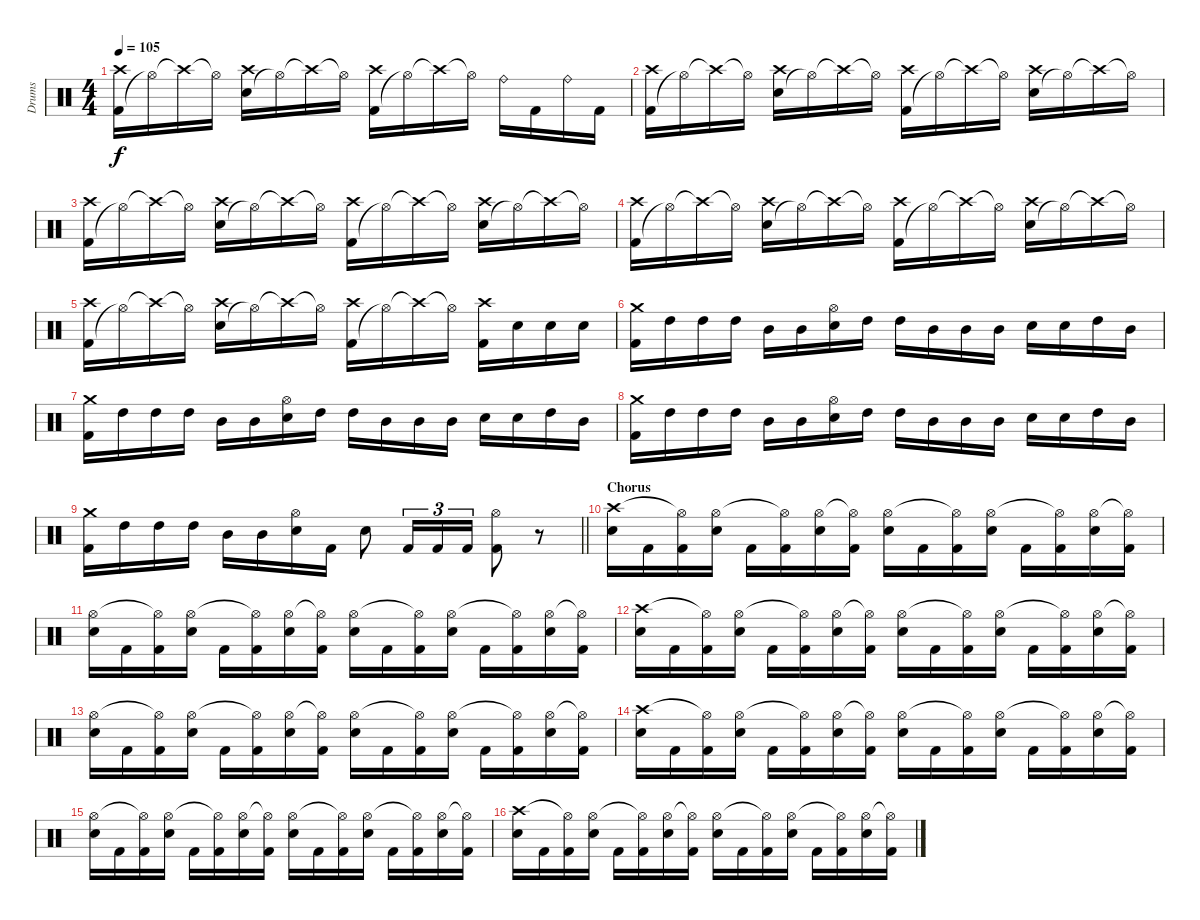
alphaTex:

\track ("Drums" "Drums") {instrument percussion}
\staff {score}
\articulation defaults
\ts (4 4)
\tempo 105
\clef neutral
\ks c
("Kick (hit) 2" "Crash high (hit)").16{dy f} "Hi-Hat (open)"{t}.16 "Crash high (hit)"{t}.16 "Hi-Hat (open)"{t}.16 ("Snare (hit) 2" "Crash high (hit)").16 "Hi-Hat (open)"{t}.16 "Crash high (hit)"{t}.16 "Hi-Hat (open)"{t}.16 ("Kick (hit) 2" "Crash high (hit)").16 "Hi-Hat (open)"{t}.16 "Crash high (hit)"{t}.16 "Hi-Hat (open)"{t}.16 "Ride (bell)".16 "Kick (hit) 2".16 "Ride (bell)".16 "Kick (hit) 2".16 |
("Kick (hit) 2" "Crash high (hit)").16 "Hi-Hat (open)"{t}.16 "Crash high (hit)"{t}.16 "Hi-Hat (open)"{t}.16 ("Snare (hit) 2" "Crash high (hit)").16 "Hi-Hat (open)"{t}.16 "Crash high (hit)"{t}.16 "Hi-Hat (open)"{t}.16 ("Kick (hit) 2" "Crash high (hit)").16 "Hi-Hat (open)"{t}.16 "Crash high (hit)"{t}.16 "Hi-Hat (open)"{t}.16 ("Snare (hit) 2" "Crash high (hit)").16 "Hi-Hat (open)"{t}.16 "Crash high (hit)"{t}.16 "Hi-Hat (open)"{t}.16 |
("Kick (hit) 2" "Crash high (hit)").16 "Hi-Hat (open)"{t}.16 "Crash high (hit)"{t}.16 "Hi-Hat (open)"{t}.16 ("Snare (hit) 2" "Crash high (hit)").16 "Hi-Hat (open)"{t}.16 "Crash high (hit)"{t}.16 "Hi-Hat (open)"{t}.16 ("Kick (hit) 2" "Crash high (hit)").16 "Hi-Hat (open)"{t}.16 "Crash high (hit)"{t}.16 "Hi-Hat (open)"{t}.16 ("Snare (hit) 2" "Crash high (hit)").16 "Hi-Hat (open)"{t}.16 "Crash high (hit)"{t}.16 "Hi-Hat (open)"{t}.16 |
("Kick (hit) 2" "Crash high (hit)").16 "Hi-Hat (open)"{t}.16 "Crash high (hit)"{t}.16 "Hi-Hat (open)"{t}.16 ("Snare (hit) 2" "Crash high (hit)").16 "Hi-Hat (open)"{t}.16 "Crash high (hit)"{t}.16 "Hi-Hat (open)"{t}.16 ("Kick (hit) 2" "Crash high (hit)").16 "Hi-Hat (open)"{t}.16 "Crash high (hit)"{t}.16 "Hi-Hat (open)"{t}.16 ("Snare (hit) 2" "Crash high (hit)").16 "Hi-Hat (open)"{t}.16 "Crash high (hit)"{t}.16 "Hi-Hat (open)"{t}.16 |
("Kick (hit) 2" "Crash high (hit)").16 "Hi-Hat (open)"{t}.16 "Crash high (hit)"{t}.16 "Hi-Hat (open)"{t}.16 ("Snare (hit) 2" "Crash high (hit)").16 "Hi-Hat (open)"{t}.16 "Crash high (hit)"{t}.16 "Hi-Hat (open)"{t}.16 ("Kick (hit) 2" "Crash high (hit)").16 "Hi-Hat (open)"{t}.16 "Crash high (hit)"{t}.16 "Hi-Hat (open)"{t}.16 ("Kick (hit) 2" "Crash high (hit)").16 "Snare (hit) 2".16 "Snare (hit) 2".16 "Snare (hit) 2".16 |
("Kick (hit) 2" "Crash medium (hit)").16 "High Tom (hit)".16 "High Tom (hit)".16 "High Tom (hit)".16 "Mid Tom (hit)".16 "Mid Tom (hit)".16 ("Snare (hit) 2" "Hi-Hat (open)").16 "High Tom (hit)".16 "High Tom (hit)".16 "Mid Tom (hit)".16 "Mid Tom (hit)".16 "Mid Tom (hit)".16 "Snare (hit) 2".16 "Snare (hit) 2".16 "High Tom (hit)".16 "Mid Tom (hit)".16 |
("Kick (hit) 2" "Crash medium (hit)").16 "High Tom (hit)".16 "High Tom (hit)".16 "High Tom (hit)".16 "Mid Tom (hit)".16 "Mid Tom (hit)".16 ("Snare (hit) 2" "Hi-Hat (open)").16 "High Tom (hit)".16 "High Tom (hit)".16 "Mid Tom (hit)".16 "Mid Tom (hit)".16 "Mid Tom (hit)".16 "Snare (hit) 2".16 "Snare (hit) 2".16 "High Tom (hit)".16 "Mid Tom (hit)".16 |
("Kick (hit) 2" "Crash medium (hit)").16 "High Tom (hit)".16 "High Tom (hit)".16 "High Tom (hit)".16 "Mid Tom (hit)".16 "Mid Tom (hit)".16 ("Snare (hit) 2" "Hi-Hat (open)").16 "High Tom (hit)".16 "High Tom (hit)".16 "Mid Tom (hit)".16 "Mid Tom (hit)".16 "Mid Tom (hit)".16 "Snare (hit) 2".16 "Snare (hit) 2".16 "High Tom (hit)".16 "Mid Tom (hit)".16 |
\barLineRight lightlight
("Kick (hit) 2" "Crash medium (hit)").16 "High Tom (hit)".16 "High Tom (hit)".16 "High Tom (hit)".16 "Mid Tom (hit)".16 "Mid Tom (hit)".16 ("Snare (hit) 2" "Hi-Hat (open)").16 "Kick (hit) 2".16 "Snare (hit) 2".8 "Kick (hit) 2".16{tu (3 2)} "Kick (hit) 2".16{tu (3 2)} "Kick (hit) 2".16{tu (3 2)} ("Hi-Hat (open)" "Kick (hit) 2").8 r.8 |
\section ("" "Chorus")
("Snare (hit) 2" "Crash high (hit)").16 "Kick (hit) 2".16 ("Kick (hit) 2" "Hi-Hat (open)"{t}).16 ("Snare (hit) 2" "Hi-Hat (open)").16 "Kick (hit) 2".16 ("Kick (hit) 2" "Hi-Hat (open)"{t}).16 ("Snare (hit) 2" "Hi-Hat (open)").16 ("Kick (hit) 2" "Hi-Hat (open)"{t}).16 ("Snare (hit) 2" "Hi-Hat (open)").16 "Kick (hit) 2".16 ("Kick (hit) 2" "Hi-Hat (open)"{t}).16 ("Snare (hit) 2" "Hi-Hat (open)").16 "Kick (hit) 2".16 ("Kick (hit) 2" "Hi-Hat (open)"{t}).16 ("Snare (hit) 2" "Hi-Hat (open)").16 ("Kick (hit) 2" "Hi-Hat (open)"{t}).16 |
("Snare (hit) 2" "Hi-Hat (open)").16 "Kick (hit) 2".16 ("Kick (hit) 2" "Hi-Hat (open)"{t}).16 ("Snare (hit) 2" "Hi-Hat (open)").16 "Kick (hit) 2".16 ("Kick (hit) 2" "Hi-Hat (open)"{t}).16 ("Snare (hit) 2" "Hi-Hat (open)").16 ("Kick (hit) 2" "Hi-Hat (open)"{t}).16 ("Snare (hit) 2" "Hi-Hat (open)").16 "Kick (hit) 2".16 ("Kick (hit) 2" "Hi-Hat (open)"{t}).16 ("Snare (hit) 2" "Hi-Hat (open)").16 "Kick (hit) 2".16 ("Kick (hit) 2" "Hi-Hat (open)"{t}).16 ("Snare (hit) 2" "Hi-Hat (open)").16 ("Kick (hit) 2" "Hi-Hat (open)"{t}).16 |
("Snare (hit) 2" "Crash high (hit)").16 "Kick (hit) 2".16 ("Kick (hit) 2" "Hi-Hat (open)"{t}).16 ("Snare (hit) 2" "Hi-Hat (open)").16 "Kick (hit) 2".16 ("Kick (hit) 2" "Hi-Hat (open)"{t}).16 ("Snare (hit) 2" "Hi-Hat (open)").16 ("Kick (hit) 2" "Hi-Hat (open)"{t}).16 ("Snare (hit) 2" "Hi-Hat (open)").16 "Kick (hit) 2".16 ("Kick (hit) 2" "Hi-Hat (open)"{t}).16 ("Snare (hit) 2" "Hi-Hat (open)").16 "Kick (hit) 2".16 ("Kick (hit) 2" "Hi-Hat (open)"{t}).16 ("Snare (hit) 2" "Hi-Hat (open)").16 ("Kick (hit) 2" "Hi-Hat (open)"{t}).16 |
("Snare (hit) 2" "Hi-Hat (open)").16 "Kick (hit) 2".16 ("Kick (hit) 2" "Hi-Hat (open)"{t}).16 ("Snare (hit) 2" "Hi-Hat (open)").16 "Kick (hit) 2".16 ("Kick (hit) 2" "Hi-Hat (open)"{t}).16 ("Snare (hit) 2" "Hi-Hat (open)").16 ("Kick (hit) 2" "Hi-Hat (open)"{t}).16 ("Snare (hit) 2" "Hi-Hat (open)").16 "Kick (hit) 2".16 ("Kick (hit) 2" "Hi-Hat (open)"{t}).16 ("Snare (hit) 2" "Hi-Hat (open)").16 "Kick (hit) 2".16 ("Kick (hit) 2" "Hi-Hat (open)"{t}).16 ("Snare (hit) 2" "Hi-Hat (open)").16 ("Kick (hit) 2" "Hi-Hat (open)"{t}).16 |
("Snare (hit) 2" "Crash high (hit)").16 "Kick (hit) 2".16 ("Kick (hit) 2" "Hi-Hat (open)"{t}).16 ("Snare (hit) 2" "Hi-Hat (open)").16 "Kick (hit) 2".16 ("Kick (hit) 2" "Hi-Hat (open)"{t}).16 ("Snare (hit) 2" "Hi-Hat (open)").16 ("Kick (hit) 2" "Hi-Hat (open)"{t}).16 ("Snare (hit) 2" "Hi-Hat (open)").16 "Kick (hit) 2".16 ("Kick (hit) 2" "Hi-Hat (open)"{t}).16 ("Snare (hit) 2" "Hi-Hat (open)").16 "Kick (hit) 2".16 ("Kick (hit) 2" "Hi-Hat (open)"{t}).16 ("Snare (hit) 2" "Hi-Hat (open)").16 ("Kick (hit) 2" "Hi-Hat (open)"{t}).16 |
("Snare (hit) 2" "Hi-Hat (open)").16 "Kick (hit) 2".16 ("Kick (hit) 2" "Hi-Hat (open)"{t}).16 ("Snare (hit) 2" "Hi-Hat (open)").16 "Kick (hit) 2".16 ("Kick (hit) 2" "Hi-Hat (open)"{t}).16 ("Snare (hit) 2" "Hi-Hat (open)").16 ("Kick (hit) 2" "Hi-Hat (open)"{t}).16 ("Snare (hit) 2" "Hi-Hat (open)").16 "Kick (hit) 2".16 ("Kick (hit) 2" "Hi-Hat (open)"{t}).16 ("Snare (hit) 2" "Hi-Hat (open)").16 "Kick (hit) 2".16 ("Kick (hit) 2" "Hi-Hat (open)"{t}).16 ("Snare (hit) 2" "Hi-Hat (open)").16 ("Kick (hit) 2" "Hi-Hat (open)"{t}).16 |
("Snare (hit) 2" "Crash high (hit)").16 "Kick (hit) 2".16 ("Kick (hit) 2" "Hi-Hat (open)"{t}).16 ("Snare (hit) 2" "Hi-Hat (open)").16 "Kick (hit) 2".16 ("Kick (hit) 2" "Hi-Hat (open)"{t}).16 ("Snare (hit) 2" "Hi-Hat (open)").16 ("Kick (hit) 2" "Hi-Hat (open)"{t}).16 ("Snare (hit) 2" "Hi-Hat (open)").16 "Kick (hit) 2".16 ("Kick (hit) 2" "Hi-Hat (open)"{t}).16 ("Snare (hit) 2" "Hi-Hat (open)").16 "Kick (hit) 2".16 ("Kick (hit) 2" "Hi-Hat (open)"{t}).16 ("Snare (hit) 2" "Hi-Hat (open)").16 ("Kick (hit) 2" "Hi-Hat (open)"{t}).16
